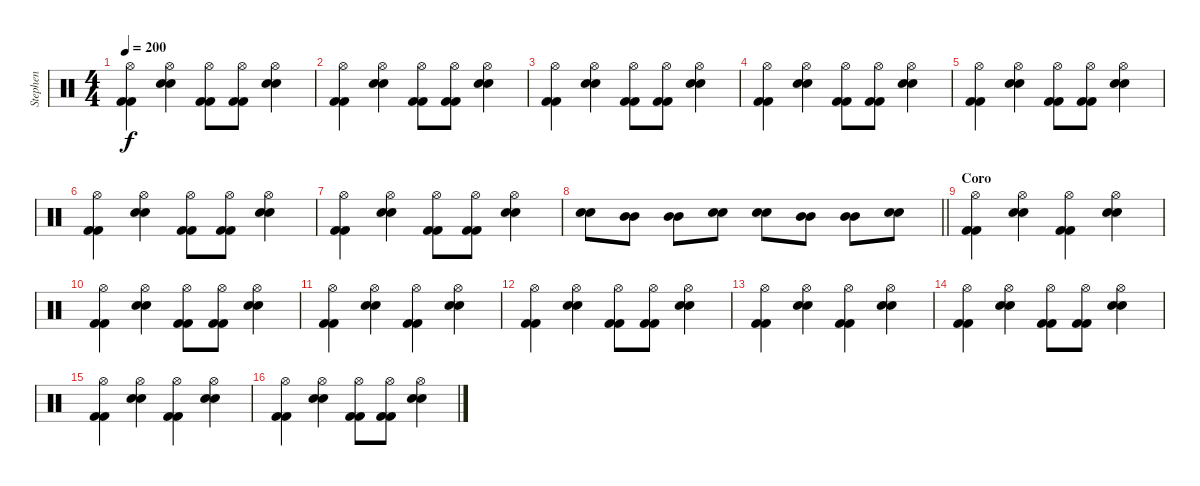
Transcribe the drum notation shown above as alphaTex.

\track ("Stephen" "Stephen") {instrument percussion}
\staff {score}
\articulation defaults
\ts (4 4)
\tempo 200
\clef neutral
\ks c
("Hi-Hat (open)" "Kick (hit) 2" "Kick (hit) 2").4{dy f} ("Hi-Hat (open)" "Electric Snare (hit)" "Electric Snare (hit)").4 ("Hi-Hat (open)" "Kick (hit) 2" "Kick (hit) 2").8 ("Hi-Hat (open)" "Kick (hit) 2" "Kick (hit) 2").8 ("Hi-Hat (open)" "Electric Snare (hit)" "Electric Snare (hit)").4 |
("Hi-Hat (open)" "Kick (hit) 2" "Kick (hit) 2").4 ("Hi-Hat (open)" "Electric Snare (hit)" "Electric Snare (hit)").4 ("Hi-Hat (open)" "Kick (hit) 2" "Kick (hit) 2").8 ("Hi-Hat (open)" "Kick (hit) 2" "Kick (hit) 2").8 ("Hi-Hat (open)" "Electric Snare (hit)" "Electric Snare (hit)").4 |
("Hi-Hat (open)" "Kick (hit) 2" "Kick (hit) 2").4 ("Hi-Hat (open)" "Electric Snare (hit)" "Electric Snare (hit)").4 ("Hi-Hat (open)" "Kick (hit) 2" "Kick (hit) 2").8 ("Hi-Hat (open)" "Kick (hit) 2" "Kick (hit) 2").8 ("Hi-Hat (open)" "Electric Snare (hit)" "Electric Snare (hit)").4 |
("Hi-Hat (open)" "Kick (hit) 2" "Kick (hit) 2").4 ("Hi-Hat (open)" "Electric Snare (hit)" "Electric Snare (hit)").4 ("Hi-Hat (open)" "Kick (hit) 2" "Kick (hit) 2").8 ("Hi-Hat (open)" "Kick (hit) 2" "Kick (hit) 2").8 ("Hi-Hat (open)" "Electric Snare (hit)" "Electric Snare (hit)").4 |
("Hi-Hat (open)" "Kick (hit) 2" "Kick (hit) 2").4 ("Hi-Hat (open)" "Electric Snare (hit)" "Electric Snare (hit)").4 ("Hi-Hat (open)" "Kick (hit) 2" "Kick (hit) 2").8 ("Hi-Hat (open)" "Kick (hit) 2" "Kick (hit) 2").8 ("Hi-Hat (open)" "Electric Snare (hit)" "Electric Snare (hit)").4 |
("Hi-Hat (open)" "Kick (hit) 2" "Kick (hit) 2").4 ("Hi-Hat (open)" "Electric Snare (hit)" "Electric Snare (hit)").4 ("Hi-Hat (open)" "Kick (hit) 2" "Kick (hit) 2").8 ("Hi-Hat (open)" "Kick (hit) 2" "Kick (hit) 2").8 ("Hi-Hat (open)" "Electric Snare (hit)" "Electric Snare (hit)").4 |
("Hi-Hat (open)" "Kick (hit) 2" "Kick (hit) 2").4 ("Hi-Hat (open)" "Electric Snare (hit)" "Electric Snare (hit)").4 ("Hi-Hat (open)" "Kick (hit) 2" "Kick (hit) 2").8 ("Hi-Hat (open)" "Kick (hit) 2" "Kick (hit) 2").8 ("Hi-Hat (open)" "Electric Snare (hit)" "Electric Snare (hit)").4 |
\barLineRight lightlight
("Electric Snare (hit)" "Electric Snare (hit)").8 ("Mid Tom (hit)" "Mid Tom (hit)").8 ("Mid Tom (hit)" "Mid Tom (hit)").8 ("Electric Snare (hit)" "Electric Snare (hit)").8 ("Electric Snare (hit)" "Electric Snare (hit)").8 ("Mid Tom (hit)" "Mid Tom (hit)").8 ("Mid Tom (hit)" "Mid Tom (hit)").8 ("Electric Snare (hit)" "Electric Snare (hit)").8 |
\section ("" "Coro ")
("Hi-Hat (open)" "Kick (hit) 2" "Kick (hit) 2").4 ("Hi-Hat (open)" "Electric Snare (hit)" "Electric Snare (hit)").4 ("Hi-Hat (open)" "Kick (hit) 2" "Kick (hit) 2").4 ("Hi-Hat (open)" "Electric Snare (hit)" "Electric Snare (hit)").4 |
("Hi-Hat (open)" "Kick (hit) 2" "Kick (hit) 2").4 ("Hi-Hat (open)" "Electric Snare (hit)" "Electric Snare (hit)").4 ("Hi-Hat (open)" "Kick (hit) 2" "Kick (hit) 2").8 ("Hi-Hat (open)" "Kick (hit) 2" "Kick (hit) 2").8 ("Hi-Hat (open)" "Electric Snare (hit)" "Electric Snare (hit)").4 |
("Hi-Hat (open)" "Kick (hit) 2" "Kick (hit) 2").4 ("Hi-Hat (open)" "Electric Snare (hit)" "Electric Snare (hit)").4 ("Hi-Hat (open)" "Kick (hit) 2" "Kick (hit) 2").4 ("Hi-Hat (open)" "Electric Snare (hit)" "Electric Snare (hit)").4 |
("Hi-Hat (open)" "Kick (hit) 2" "Kick (hit) 2").4 ("Hi-Hat (open)" "Electric Snare (hit)" "Electric Snare (hit)").4 ("Hi-Hat (open)" "Kick (hit) 2" "Kick (hit) 2").8 ("Hi-Hat (open)" "Kick (hit) 2" "Kick (hit) 2").8 ("Hi-Hat (open)" "Electric Snare (hit)" "Electric Snare (hit)").4 |
("Hi-Hat (open)" "Kick (hit) 2" "Kick (hit) 2").4 ("Hi-Hat (open)" "Electric Snare (hit)" "Electric Snare (hit)").4 ("Hi-Hat (open)" "Kick (hit) 2" "Kick (hit) 2").4 ("Hi-Hat (open)" "Electric Snare (hit)" "Electric Snare (hit)").4 |
("Hi-Hat (open)" "Kick (hit) 2" "Kick (hit) 2").4 ("Hi-Hat (open)" "Electric Snare (hit)" "Electric Snare (hit)").4 ("Hi-Hat (open)" "Kick (hit) 2" "Kick (hit) 2").8 ("Hi-Hat (open)" "Kick (hit) 2" "Kick (hit) 2").8 ("Hi-Hat (open)" "Electric Snare (hit)" "Electric Snare (hit)").4 |
("Hi-Hat (open)" "Kick (hit) 2" "Kick (hit) 2").4 ("Hi-Hat (open)" "Electric Snare (hit)" "Electric Snare (hit)").4 ("Hi-Hat (open)" "Kick (hit) 2" "Kick (hit) 2").4 ("Hi-Hat (open)" "Electric Snare (hit)" "Electric Snare (hit)").4 |
("Hi-Hat (open)" "Kick (hit) 2" "Kick (hit) 2").4 ("Hi-Hat (open)" "Electric Snare (hit)" "Electric Snare (hit)").4 ("Hi-Hat (open)" "Kick (hit) 2" "Kick (hit) 2").8 ("Hi-Hat (open)" "Kick (hit) 2" "Kick (hit) 2").8 ("Hi-Hat (open)" "Electric Snare (hit)" "Electric Snare (hit)").4
